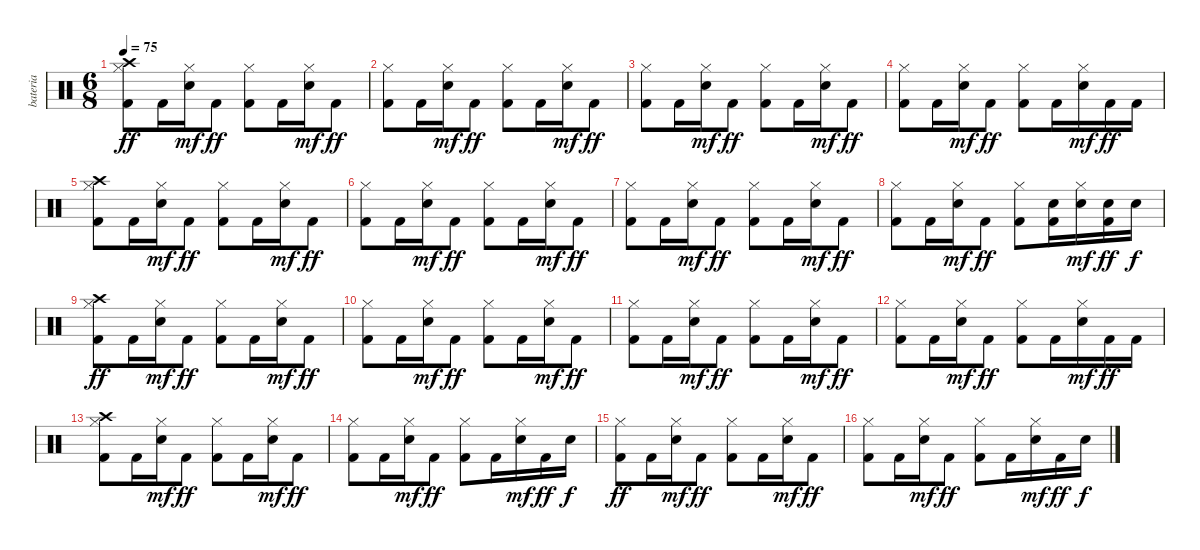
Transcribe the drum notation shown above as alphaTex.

\track ("bateria" "bateria") {instrument percussion}
\staff {score}
\articulation defaults
\ts (6 8)
\tempo 75
\clef neutral
\ks c
("Crash high (hit)" "Hi-Hat (closed)" "Kick (hit) 2").8{dy ff} "Kick (hit) 2".16 ("Hi-Hat (closed)" "Snare (hit) 2").16{dy mf} "Kick (hit) 2".8{dy ff} ("Hi-Hat (closed)" "Kick (hit) 2").8 "Kick (hit) 2".16 ("Hi-Hat (closed)" "Snare (hit) 2").16{dy mf} "Kick (hit) 2".8{dy ff} |
("Hi-Hat (closed)" "Kick (hit) 2").8 "Kick (hit) 2".16 ("Hi-Hat (closed)" "Snare (hit) 2").16{dy mf} "Kick (hit) 2".8{dy ff} ("Hi-Hat (closed)" "Kick (hit) 2").8 "Kick (hit) 2".16 ("Hi-Hat (closed)" "Snare (hit) 2").16{dy mf} "Kick (hit) 2".8{dy ff} |
("Hi-Hat (closed)" "Kick (hit) 2").8 "Kick (hit) 2".16 ("Hi-Hat (closed)" "Snare (hit) 2").16{dy mf} "Kick (hit) 2".8{dy ff} ("Hi-Hat (closed)" "Kick (hit) 2").8 "Kick (hit) 2".16 ("Hi-Hat (closed)" "Snare (hit) 2").16{dy mf} "Kick (hit) 2".8{dy ff} |
("Hi-Hat (closed)" "Kick (hit) 2").8 "Kick (hit) 2".16 ("Hi-Hat (closed)" "Snare (hit) 2").16{dy mf} "Kick (hit) 2".8{dy ff} ("Hi-Hat (closed)" "Kick (hit) 2").8 "Kick (hit) 2".16 ("Hi-Hat (closed)" "Snare (hit) 2").16{dy mf} "Kick (hit) 2".16{dy ff} "Kick (hit) 2".16 |
("Crash high (hit)" "Hi-Hat (closed)" "Kick (hit) 2").8 "Kick (hit) 2".16 ("Hi-Hat (closed)" "Snare (hit) 2").16{dy mf} "Kick (hit) 2".8{dy ff} ("Hi-Hat (closed)" "Kick (hit) 2").8 "Kick (hit) 2".16 ("Hi-Hat (closed)" "Snare (hit) 2").16{dy mf} "Kick (hit) 2".8{dy ff} |
("Hi-Hat (closed)" "Kick (hit) 2").8 "Kick (hit) 2".16 ("Hi-Hat (closed)" "Snare (hit) 2").16{dy mf} "Kick (hit) 2".8{dy ff} ("Hi-Hat (closed)" "Kick (hit) 2").8 "Kick (hit) 2".16 ("Hi-Hat (closed)" "Snare (hit) 2").16{dy mf} "Kick (hit) 2".8{dy ff} |
("Hi-Hat (closed)" "Kick (hit) 2").8 "Kick (hit) 2".16 ("Hi-Hat (closed)" "Snare (hit) 2").16{dy mf} "Kick (hit) 2".8{dy ff} ("Hi-Hat (closed)" "Kick (hit) 2").8 "Kick (hit) 2".16 ("Hi-Hat (closed)" "Snare (hit) 2").16{dy mf} "Kick (hit) 2".8{dy ff} |
("Hi-Hat (closed)" "Kick (hit) 2").8 "Kick (hit) 2".16 ("Hi-Hat (closed)" "Snare (hit) 2").16{dy mf} "Kick (hit) 2".8{dy ff} ("Hi-Hat (closed)" "Kick (hit) 2").8 ("Snare (hit) 2" "Kick (hit) 2").16 ("Hi-Hat (closed)" "Snare (hit) 2").16{dy mf} ("Snare (hit) 2" "Kick (hit) 2").16{dy ff} "Snare (hit) 2".16{dy f} |
("Crash high (hit)" "Hi-Hat (closed)" "Kick (hit) 2").8{dy ff} "Kick (hit) 2".16 ("Hi-Hat (closed)" "Snare (hit) 2").16{dy mf} "Kick (hit) 2".8{dy ff} ("Hi-Hat (closed)" "Kick (hit) 2").8 "Kick (hit) 2".16 ("Hi-Hat (closed)" "Snare (hit) 2").16{dy mf} "Kick (hit) 2".8{dy ff} |
("Hi-Hat (closed)" "Kick (hit) 2").8 "Kick (hit) 2".16 ("Hi-Hat (closed)" "Snare (hit) 2").16{dy mf} "Kick (hit) 2".8{dy ff} ("Hi-Hat (closed)" "Kick (hit) 2").8 "Kick (hit) 2".16 ("Hi-Hat (closed)" "Snare (hit) 2").16{dy mf} "Kick (hit) 2".8{dy ff} |
("Hi-Hat (closed)" "Kick (hit) 2").8 "Kick (hit) 2".16 ("Hi-Hat (closed)" "Snare (hit) 2").16{dy mf} "Kick (hit) 2".8{dy ff} ("Hi-Hat (closed)" "Kick (hit) 2").8 "Kick (hit) 2".16 ("Hi-Hat (closed)" "Snare (hit) 2").16{dy mf} "Kick (hit) 2".8{dy ff} |
("Hi-Hat (closed)" "Kick (hit) 2").8 "Kick (hit) 2".16 ("Hi-Hat (closed)" "Snare (hit) 2").16{dy mf} "Kick (hit) 2".8{dy ff} ("Hi-Hat (closed)" "Kick (hit) 2").8 "Kick (hit) 2".16 ("Hi-Hat (closed)" "Snare (hit) 2").16{dy mf} "Kick (hit) 2".16{dy ff} "Kick (hit) 2".16 |
("Crash high (hit)" "Hi-Hat (closed)" "Kick (hit) 2").8 "Kick (hit) 2".16 ("Hi-Hat (closed)" "Snare (hit) 2").16{dy mf} "Kick (hit) 2".8{dy ff} ("Hi-Hat (closed)" "Kick (hit) 2").8 "Kick (hit) 2".16 ("Hi-Hat (closed)" "Snare (hit) 2").16{dy mf} "Kick (hit) 2".8{dy ff} |
("Hi-Hat (closed)" "Kick (hit) 2").8 "Kick (hit) 2".16 ("Hi-Hat (closed)" "Snare (hit) 2").16{dy mf} "Kick (hit) 2".8{dy ff} ("Hi-Hat (closed)" "Kick (hit) 2").8 "Kick (hit) 2".16 ("Hi-Hat (closed)" "Snare (hit) 2").16{dy mf} "Kick (hit) 2".16{dy ff} "Snare (hit) 2".16{dy f} |
("Hi-Hat (closed)" "Kick (hit) 2").8{dy ff} "Kick (hit) 2".16 ("Hi-Hat (closed)" "Snare (hit) 2").16{dy mf} "Kick (hit) 2".8{dy ff} ("Hi-Hat (closed)" "Kick (hit) 2").8 "Kick (hit) 2".16 ("Hi-Hat (closed)" "Snare (hit) 2").16{dy mf} "Kick (hit) 2".8{dy ff} |
("Hi-Hat (closed)" "Kick (hit) 2").8 "Kick (hit) 2".16 ("Hi-Hat (closed)" "Snare (hit) 2").16{dy mf} "Kick (hit) 2".8{dy ff} ("Hi-Hat (closed)" "Kick (hit) 2").8 "Kick (hit) 2".16 ("Hi-Hat (closed)" "Snare (hit) 2").16{dy mf} "Kick (hit) 2".16{dy ff} "Snare (hit) 2".16{dy f}
